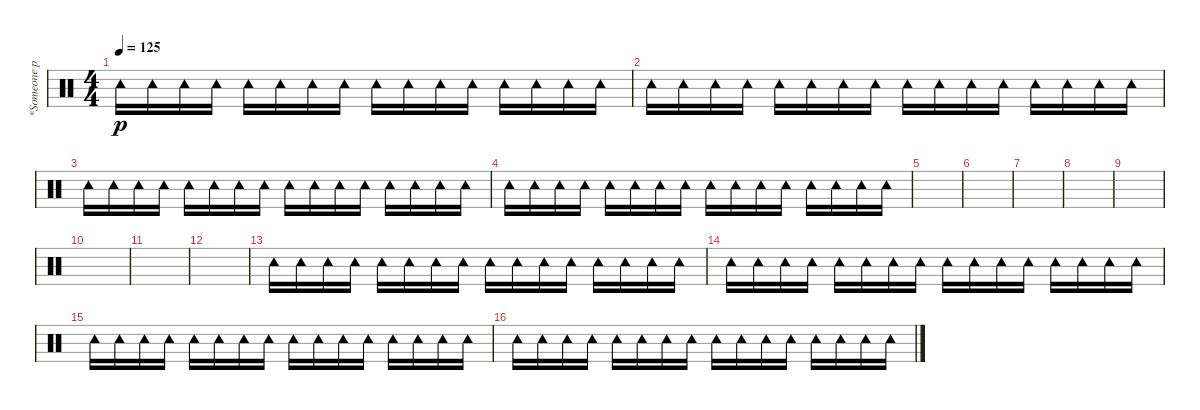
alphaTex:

\track ("*Someone play the tambourine" "*Someone p") {instrument percussion}
\staff {score}
\articulation defaults
\ts (4 4)
\tempo 125
\clef neutral
\ks c "Tambourine (hit)".16{dy p} "Tambourine (hit)".16 "Tambourine (hit)".16 "Tambourine (hit)".16 "Tambourine (hit)".16 "Tambourine (hit)".16 "Tambourine (hit)".16 "Tambourine (hit)".16 "Tambourine (hit)".16 "Tambourine (hit)".16 "Tambourine (hit)".16 "Tambourine (hit)".16 "Tambourine (hit)".16 "Tambourine (hit)".16 "Tambourine (hit)".16 "Tambourine (hit)".16
|
"Tambourine (hit)".16 "Tambourine (hit)".16 "Tambourine (hit)".16 "Tambourine (hit)".16 "Tambourine (hit)".16 "Tambourine (hit)".16 "Tambourine (hit)".16 "Tambourine (hit)".16 "Tambourine (hit)".16 "Tambourine (hit)".16 "Tambourine (hit)".16 "Tambourine (hit)".16 "Tambourine (hit)".16 "Tambourine (hit)".16 "Tambourine (hit)".16 "Tambourine (hit)".16 |
"Tambourine (hit)".16 "Tambourine (hit)".16 "Tambourine (hit)".16 "Tambourine (hit)".16 "Tambourine (hit)".16 "Tambourine (hit)".16 "Tambourine (hit)".16 "Tambourine (hit)".16 "Tambourine (hit)".16 "Tambourine (hit)".16 "Tambourine (hit)".16 "Tambourine (hit)".16 "Tambourine (hit)".16 "Tambourine (hit)".16 "Tambourine (hit)".16 "Tambourine (hit)".16 |
"Tambourine (hit)".16 "Tambourine (hit)".16 "Tambourine (hit)".16 "Tambourine (hit)".16 "Tambourine (hit)".16 "Tambourine (hit)".16 "Tambourine (hit)".16 "Tambourine (hit)".16 "Tambourine (hit)".16 "Tambourine (hit)".16 "Tambourine (hit)".16 "Tambourine (hit)".16 "Tambourine (hit)".16 "Tambourine (hit)".16 "Tambourine (hit)".16 "Tambourine (hit)".16 |
|
|
|
|
|
|
|
|
"Tambourine (hit)".16 "Tambourine (hit)".16 "Tambourine (hit)".16 "Tambourine (hit)".16 "Tambourine (hit)".16 "Tambourine (hit)".16 "Tambourine (hit)".16 "Tambourine (hit)".16 "Tambourine (hit)".16 "Tambourine (hit)".16 "Tambourine (hit)".16 "Tambourine (hit)".16 "Tambourine (hit)".16 "Tambourine (hit)".16 "Tambourine (hit)".16 "Tambourine (hit)".16 |
"Tambourine (hit)".16 "Tambourine (hit)".16 "Tambourine (hit)".16 "Tambourine (hit)".16 "Tambourine (hit)".16 "Tambourine (hit)".16 "Tambourine (hit)".16 "Tambourine (hit)".16 "Tambourine (hit)".16 "Tambourine (hit)".16 "Tambourine (hit)".16 "Tambourine (hit)".16 "Tambourine (hit)".16 "Tambourine (hit)".16 "Tambourine (hit)".16 "Tambourine (hit)".16 |
"Tambourine (hit)".16 "Tambourine (hit)".16 "Tambourine (hit)".16 "Tambourine (hit)".16 "Tambourine (hit)".16 "Tambourine (hit)".16 "Tambourine (hit)".16 "Tambourine (hit)".16 "Tambourine (hit)".16 "Tambourine (hit)".16 "Tambourine (hit)".16 "Tambourine (hit)".16 "Tambourine (hit)".16 "Tambourine (hit)".16 "Tambourine (hit)".16 "Tambourine (hit)".16 |
"Tambourine (hit)".16 "Tambourine (hit)".16 "Tambourine (hit)".16 "Tambourine (hit)".16 "Tambourine (hit)".16 "Tambourine (hit)".16 "Tambourine (hit)".16 "Tambourine (hit)".16 "Tambourine (hit)".16 "Tambourine (hit)".16 "Tambourine (hit)".16 "Tambourine (hit)".16 "Tambourine (hit)".16 "Tambourine (hit)".16 "Tambourine (hit)".16 "Tambourine (hit)".16
